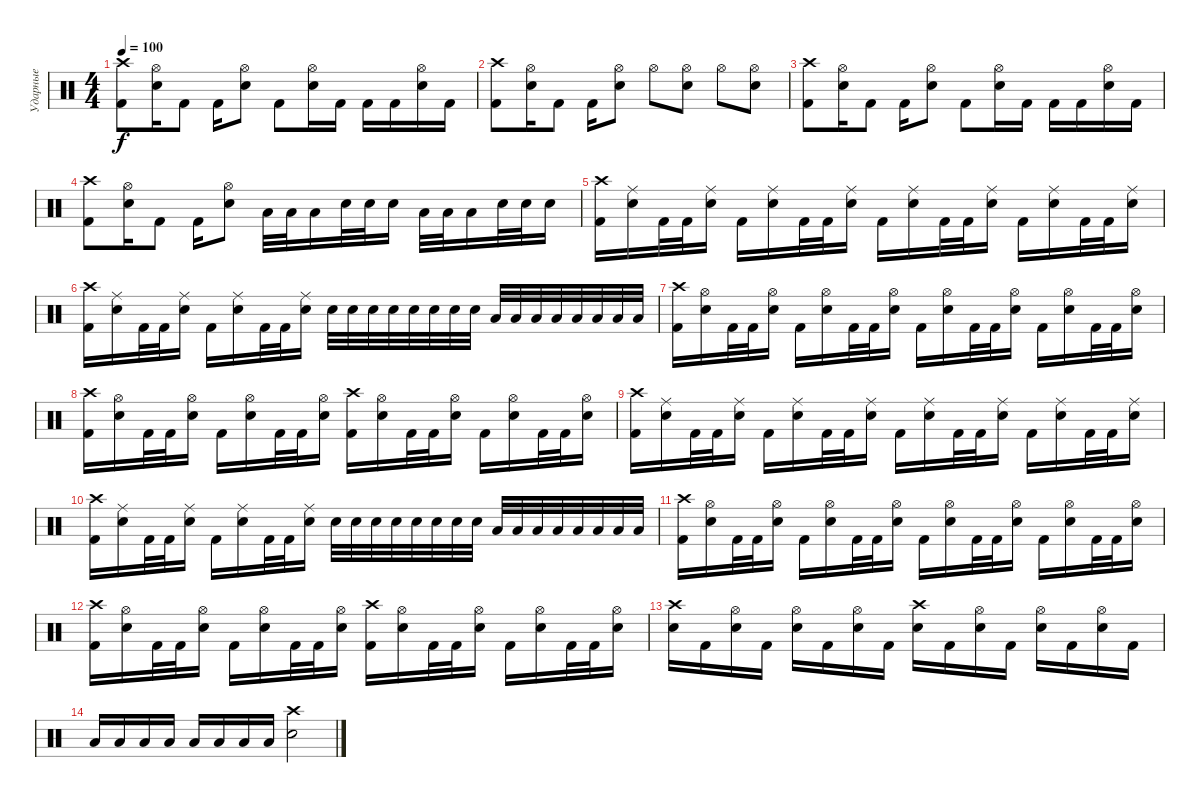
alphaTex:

\track ("Ударные" "Ударные") {instrument percussion}
\staff {score}
\articulation defaults
\ts (4 4)
\tempo 100
\clef neutral
\ks c
("Kick (hit) 2" "Crash high (hit)").8{dy f} ("Electric Snare (hit)" "Hi-Hat (open)").16 "Kick (hit) 2".8 "Kick (hit) 2".16 ("Electric Snare (hit)" "Hi-Hat (open)").8 "Kick (hit) 2".8 ("Electric Snare (hit)" "Hi-Hat (open)").16 "Kick (hit) 2".16 "Kick (hit) 2".16 "Kick (hit) 2".16 ("Electric Snare (hit)" "Hi-Hat (open)").16 "Kick (hit) 2".16 |
("Kick (hit) 2" "Crash high (hit)").8 ("Electric Snare (hit)" "Hi-Hat (open)").16 "Kick (hit) 2".8 "Kick (hit) 2".16 ("Electric Snare (hit)" "Hi-Hat (open)").8 "Hi-Hat (open)".8 ("Hi-Hat (open)" "Electric Snare (hit)").8 "Hi-Hat (open)".8 ("Hi-Hat (open)" "Electric Snare (hit)").8 |
("Kick (hit) 2" "Crash high (hit)").8 ("Electric Snare (hit)" "Hi-Hat (open)").16 "Kick (hit) 2".8 "Kick (hit) 2".16 ("Electric Snare (hit)" "Hi-Hat (open)").8 "Kick (hit) 2".8 ("Electric Snare (hit)" "Hi-Hat (open)").16 "Kick (hit) 2".16 "Kick (hit) 2".16 "Kick (hit) 2".16 ("Electric Snare (hit)" "Hi-Hat (open)").16 "Kick (hit) 2".16 |
("Kick (hit) 2" "Crash high (hit)").8 ("Electric Snare (hit)" "Hi-Hat (open)").16 "Kick (hit) 2".8 "Kick (hit) 2".16 ("Electric Snare (hit)" "Hi-Hat (open)").8 "Low Tom (hit)".32 "Low Tom (hit)".32 "Low Tom (hit)".16 "Electric Snare (hit)".32 "Electric Snare (hit)".32 "Electric Snare (hit)".16 "Low Tom (hit)".32 "Low Tom (hit)".32 "Low Tom (hit)".16 "Electric Snare (hit)".32 "Electric Snare (hit)".32 "Electric Snare (hit)".16 |
("Kick (hit) 2" "Crash high (hit)").16 ("Electric Snare (hit)" "Ride (middle)").16 "Kick (hit) 2".32 "Kick (hit) 2".32 ("Electric Snare (hit)" "Ride (middle)").16 "Kick (hit) 2".16 ("Electric Snare (hit)" "Ride (middle)").16 "Kick (hit) 2".32 "Kick (hit) 2".32 ("Electric Snare (hit)" "Ride (middle)").16 "Kick (hit) 2".16 ("Electric Snare (hit)" "Ride (middle)").16 "Kick (hit) 2".32 "Kick (hit) 2".32 ("Electric Snare (hit)" "Ride (middle)").16 "Kick (hit) 2".16 ("Electric Snare (hit)" "Ride (middle)").16 "Kick (hit) 2".32 "Kick (hit) 2".32 ("Electric Snare (hit)" "Ride (middle)").16 |
("Kick (hit) 2" "Crash high (hit)").16 ("Electric Snare (hit)" "Ride (middle)").16 "Kick (hit) 2".32 "Kick (hit) 2".32 ("Electric Snare (hit)" "Ride (middle)").16 "Kick (hit) 2".16 ("Electric Snare (hit)" "Ride (middle)").16 "Kick (hit) 2".32 "Kick (hit) 2".32 ("Electric Snare (hit)" "Ride (middle)").16 "Electric Snare (hit)".32 "Electric Snare (hit)".32 "Electric Snare (hit)".32 "Electric Snare (hit)".32 "Electric Snare (hit)".32 "Electric Snare (hit)".32 "Electric Snare (hit)".32 "Electric Snare (hit)".32 "Low Tom (hit)".32 "Low Tom (hit)".32 "Low Tom (hit)".32 "Low Tom (hit)".32 "Low Tom (hit)".32 "Low Tom (hit)".32 "Low Tom (hit)".32 "Low Tom (hit)".32 |
("Kick (hit) 2" "Crash high (hit)").16 ("Electric Snare (hit)" "Hi-Hat (open)").16 "Kick (hit) 2".32 "Kick (hit) 2".32 ("Electric Snare (hit)" "Hi-Hat (open)").16 "Kick (hit) 2".16 ("Electric Snare (hit)" "Hi-Hat (open)").16 "Kick (hit) 2".32 "Kick (hit) 2".32 ("Electric Snare (hit)" "Hi-Hat (open)").16 "Kick (hit) 2".16 ("Electric Snare (hit)" "Hi-Hat (open)").16 "Kick (hit) 2".32 "Kick (hit) 2".32 ("Electric Snare (hit)" "Hi-Hat (open)").16 "Kick (hit) 2".16 ("Electric Snare (hit)" "Hi-Hat (open)").16 "Kick (hit) 2".32 "Kick (hit) 2".32 ("Electric Snare (hit)" "Hi-Hat (open)").16 |
("Kick (hit) 2" "Crash high (hit)").16 ("Electric Snare (hit)" "Hi-Hat (open)").16 "Kick (hit) 2".32 "Kick (hit) 2".32 ("Electric Snare (hit)" "Hi-Hat (open)").16 "Kick (hit) 2".16 ("Electric Snare (hit)" "Hi-Hat (open)").16 "Kick (hit) 2".32 "Kick (hit) 2".32 ("Electric Snare (hit)" "Hi-Hat (open)").16 ("Kick (hit) 2" "Crash high (hit)").16 ("Electric Snare (hit)" "Hi-Hat (open)").16 "Kick (hit) 2".32 "Kick (hit) 2".32 ("Electric Snare (hit)" "Hi-Hat (open)").16 "Kick (hit) 2".16 ("Electric Snare (hit)" "Hi-Hat (open)").16 "Kick (hit) 2".32 "Kick (hit) 2".32 ("Electric Snare (hit)" "Hi-Hat (open)").16 |
("Kick (hit) 2" "Crash high (hit)").16 ("Electric Snare (hit)" "Ride (middle)").16 "Kick (hit) 2".32 "Kick (hit) 2".32 ("Electric Snare (hit)" "Ride (middle)").16 "Kick (hit) 2".16 ("Electric Snare (hit)" "Ride (middle)").16 "Kick (hit) 2".32 "Kick (hit) 2".32 ("Electric Snare (hit)" "Ride (middle)").16 "Kick (hit) 2".16 ("Electric Snare (hit)" "Ride (middle)").16 "Kick (hit) 2".32 "Kick (hit) 2".32 ("Electric Snare (hit)" "Ride (middle)").16 "Kick (hit) 2".16 ("Electric Snare (hit)" "Ride (middle)").16 "Kick (hit) 2".32 "Kick (hit) 2".32 ("Electric Snare (hit)" "Ride (middle)").16 |
("Kick (hit) 2" "Crash high (hit)").16 ("Electric Snare (hit)" "Ride (middle)").16 "Kick (hit) 2".32 "Kick (hit) 2".32 ("Electric Snare (hit)" "Ride (middle)").16 "Kick (hit) 2".16 ("Electric Snare (hit)" "Ride (middle)").16 "Kick (hit) 2".32 "Kick (hit) 2".32 ("Electric Snare (hit)" "Ride (middle)").16 "Electric Snare (hit)".32 "Electric Snare (hit)".32 "Electric Snare (hit)".32 "Electric Snare (hit)".32 "Electric Snare (hit)".32 "Electric Snare (hit)".32 "Electric Snare (hit)".32 "Electric Snare (hit)".32 "Low Tom (hit)".32 "Low Tom (hit)".32 "Low Tom (hit)".32 "Low Tom (hit)".32 "Low Tom (hit)".32 "Low Tom (hit)".32 "Low Tom (hit)".32 "Low Tom (hit)".32 |
("Kick (hit) 2" "Crash high (hit)").16 ("Electric Snare (hit)" "Hi-Hat (open)").16 "Kick (hit) 2".32 "Kick (hit) 2".32 ("Electric Snare (hit)" "Hi-Hat (open)").16 "Kick (hit) 2".16 ("Electric Snare (hit)" "Hi-Hat (open)").16 "Kick (hit) 2".32 "Kick (hit) 2".32 ("Electric Snare (hit)" "Hi-Hat (open)").16 "Kick (hit) 2".16 ("Electric Snare (hit)" "Hi-Hat (open)").16 "Kick (hit) 2".32 "Kick (hit) 2".32 ("Electric Snare (hit)" "Hi-Hat (open)").16 "Kick (hit) 2".16 ("Electric Snare (hit)" "Hi-Hat (open)").16 "Kick (hit) 2".32 "Kick (hit) 2".32 ("Electric Snare (hit)" "Hi-Hat (open)").16 |
("Kick (hit) 2" "Crash high (hit)").16 ("Electric Snare (hit)" "Hi-Hat (open)").16 "Kick (hit) 2".32 "Kick (hit) 2".32 ("Electric Snare (hit)" "Hi-Hat (open)").16 "Kick (hit) 2".16 ("Electric Snare (hit)" "Hi-Hat (open)").16 "Kick (hit) 2".32 "Kick (hit) 2".32 ("Electric Snare (hit)" "Hi-Hat (open)").16 ("Kick (hit) 2" "Crash high (hit)").16 ("Electric Snare (hit)" "Hi-Hat (open)").16 "Kick (hit) 2".32 "Kick (hit) 2".32 ("Electric Snare (hit)" "Hi-Hat (open)").16 "Kick (hit) 2".16 ("Electric Snare (hit)" "Hi-Hat (open)").16 "Kick (hit) 2".32 "Kick (hit) 2".32 ("Electric Snare (hit)" "Hi-Hat (open)").16 |
("Electric Snare (hit)" "Crash high (hit)").16 "Kick (hit) 2".16 ("Electric Snare (hit)" "Hi-Hat (open)").16 "Kick (hit) 2".16 ("Electric Snare (hit)" "Hi-Hat (open)").16 "Kick (hit) 2".16 ("Electric Snare (hit)" "Hi-Hat (open)").16 "Kick (hit) 2".16 ("Electric Snare (hit)" "Crash high (hit)").16 "Kick (hit) 2".16 ("Electric Snare (hit)" "Hi-Hat (open)").16 "Kick (hit) 2".16 ("Electric Snare (hit)" "Hi-Hat (open)").16 "Kick (hit) 2".16 ("Electric Snare (hit)" "Hi-Hat (open)").16 "Kick (hit) 2".16 |
"Low Tom (hit)".16 "Low Tom (hit)".16 "Low Tom (hit)".16 "Low Tom (hit)".16 "Low Tom (hit)".16 "Low Tom (hit)".16 "Low Tom (hit)".16 "Low Tom (hit)".16 ("Electric Snare (hit)" "Crash high (hit)").2
